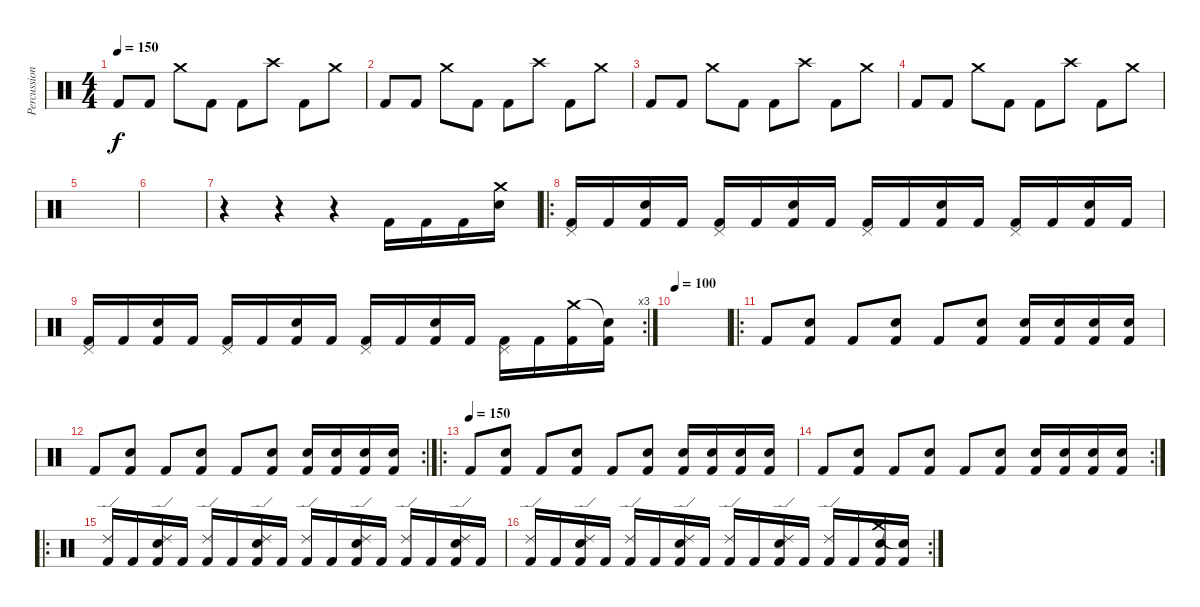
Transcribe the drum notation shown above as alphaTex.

\track ("Percussion" "Percussion") {instrument percussion}
\staff {score}
\articulation defaults
\ts (4 4)
\tempo 150
\clef neutral
\ks c "Kick (hit) 2".8{dy f} "Kick (hit) 2".8 "Crash medium (hit)".8 "Kick (hit) 2".8 "Kick (hit) 2".8 "Crash high (hit)".8 "Kick (hit) 2".8 "Crash medium (hit)".8
|
"Kick (hit) 2".8 "Kick (hit) 2".8 "Crash medium (hit)".8 "Kick (hit) 2".8 "Kick (hit) 2".8 "Crash high (hit)".8 "Kick (hit) 2".8 "Crash medium (hit)".8 |
"Kick (hit) 2".8 "Kick (hit) 2".8 "Crash medium (hit)".8 "Kick (hit) 2".8 "Kick (hit) 2".8 "Crash high (hit)".8 "Kick (hit) 2".8 "Crash medium (hit)".8 |
"Kick (hit) 2".8 "Kick (hit) 2".8 "Crash medium (hit)".8 "Kick (hit) 2".8 "Kick (hit) 2".8 "Crash high (hit)".8 "Kick (hit) 2".8 "Crash medium (hit)".8 |
|
|
r.4 r.4 r.4 "Kick (hit) 2".16 "Kick (hit) 2".16 "Kick (hit) 2".16 ("Crash medium (hit)" "Electric Snare (hit)").16 |
\ro
("Pedal Hi-Hat (hit)" "Kick (hit) 2").16 "Kick (hit) 2".16 ("Electric Snare (hit)" "Kick (hit) 2").16 "Kick (hit) 2".16 ("Pedal Hi-Hat (hit)" "Kick (hit) 2").16 "Kick (hit) 2".16 ("Electric Snare (hit)" "Kick (hit) 2").16 "Kick (hit) 2".16 ("Pedal Hi-Hat (hit)" "Kick (hit) 2").16 "Kick (hit) 2".16 ("Electric Snare (hit)" "Kick (hit) 2").16 "Kick (hit) 2".16 ("Pedal Hi-Hat (hit)" "Kick (hit) 2").16 "Kick (hit) 2".16 ("Electric Snare (hit)" "Kick (hit) 2").16 "Kick (hit) 2".16 |
\rc 3
("Pedal Hi-Hat (hit)" "Kick (hit) 2").16 "Kick (hit) 2".16 ("Electric Snare (hit)" "Kick (hit) 2").16 "Kick (hit) 2".16 ("Pedal Hi-Hat (hit)" "Kick (hit) 2").16 "Kick (hit) 2".16 ("Electric Snare (hit)" "Kick (hit) 2").16 "Kick (hit) 2".16 ("Pedal Hi-Hat (hit)" "Kick (hit) 2").16 "Kick (hit) 2".16 ("Electric Snare (hit)" "Kick (hit) 2").16 "Kick (hit) 2".16 ("Pedal Hi-Hat (hit)" "Kick (hit) 2").16 "Kick (hit) 2".16 ("Crash medium (hit)" "Kick (hit) 2").16 ("Snare (hit)"{t} "Kick (hit) 2").16 |
\tempo 100
|
\ro "Kick (hit) 2".8
("Electric Snare (hit)" "Kick (hit) 2").8 "Kick (hit) 2".8 ("Electric Snare (hit)" "Kick (hit) 2").8 "Kick (hit) 2".8 ("Electric Snare (hit)" "Kick (hit) 2").8 ("Electric Snare (hit)" "Kick (hit) 2").16 ("Electric Snare (hit)" "Kick (hit) 2").16 ("Electric Snare (hit)" "Kick (hit) 2").16 ("Electric Snare (hit)" "Kick (hit) 2").16 |
\rc 2 "Kick (hit) 2".8
("Electric Snare (hit)" "Kick (hit) 2").8 "Kick (hit) 2".8 ("Electric Snare (hit)" "Kick (hit) 2").8 "Kick (hit) 2".8 ("Electric Snare (hit)" "Kick (hit) 2").8 ("Electric Snare (hit)" "Kick (hit) 2").16 ("Electric Snare (hit)" "Kick (hit) 2").16 ("Electric Snare (hit)" "Kick (hit) 2").16 ("Electric Snare (hit)" "Kick (hit) 2").16 |
\ro
\tempo (150)
"Kick (hit) 2".8 ("Electric Snare (hit)" "Kick (hit) 2").8 "Kick (hit) 2".8 ("Electric Snare (hit)" "Kick (hit) 2").8 "Kick (hit) 2".8 ("Electric Snare (hit)" "Kick (hit) 2").8 ("Electric Snare (hit)" "Kick (hit) 2").16 ("Electric Snare (hit)" "Kick (hit) 2").16 ("Electric Snare (hit)" "Kick (hit) 2").16 ("Electric Snare (hit)" "Kick (hit) 2").16 |
\rc 2 "Kick (hit) 2".8
("Electric Snare (hit)" "Kick (hit) 2").8 "Kick (hit) 2".8 ("Electric Snare (hit)" "Kick (hit) 2").8 "Kick (hit) 2".8 ("Electric Snare (hit)" "Kick (hit) 2").8 ("Electric Snare (hit)" "Kick (hit) 2").16 ("Electric Snare (hit)" "Kick (hit) 2").16 ("Electric Snare (hit)" "Kick (hit) 2").16 ("Electric Snare (hit)" "Kick (hit) 2").16 |
\ro
("Ride (edge) 2" "Kick (hit) 2").16 "Kick (hit) 2".16 ("Ride (edge) 2" "Electric Snare (hit)" "Kick (hit) 2").16 "Kick (hit) 2".16 ("Ride (edge) 2" "Kick (hit) 2").16 "Kick (hit) 2".16 ("Ride (edge) 2" "Electric Snare (hit)" "Kick (hit) 2").16 "Kick (hit) 2".16 ("Ride (edge) 2" "Kick (hit) 2").16 "Kick (hit) 2".16 ("Ride (edge) 2" "Electric Snare (hit)" "Kick (hit) 2").16 "Kick (hit) 2".16 ("Ride (edge) 2" "Kick (hit) 2").16 "Kick (hit) 2".16 ("Ride (edge) 2" "Electric Snare (hit)" "Kick (hit) 2").16 "Kick (hit) 2".16 |
\rc 2
("Ride (edge) 2" "Kick (hit) 2").16 "Kick (hit) 2".16 ("Ride (edge) 2" "Electric Snare (hit)" "Kick (hit) 2").16 "Kick (hit) 2".16 ("Ride (edge) 2" "Kick (hit) 2").16 "Kick (hit) 2".16 ("Ride (edge) 2" "Electric Snare (hit)" "Kick (hit) 2").16 "Kick (hit) 2".16 ("Ride (edge) 2" "Kick (hit) 2").16 "Kick (hit) 2".16 ("Ride (edge) 2" "Electric Snare (hit)" "Kick (hit) 2").16 "Kick (hit) 2".16 ("Ride (edge) 2" "Kick (hit) 2").16 "Kick (hit) 2".16 ("Crash medium (hit)" "Electric Snare (hit)" "Kick (hit) 2").16 ("Snare (hit)"{t} "Kick (hit) 2").16
